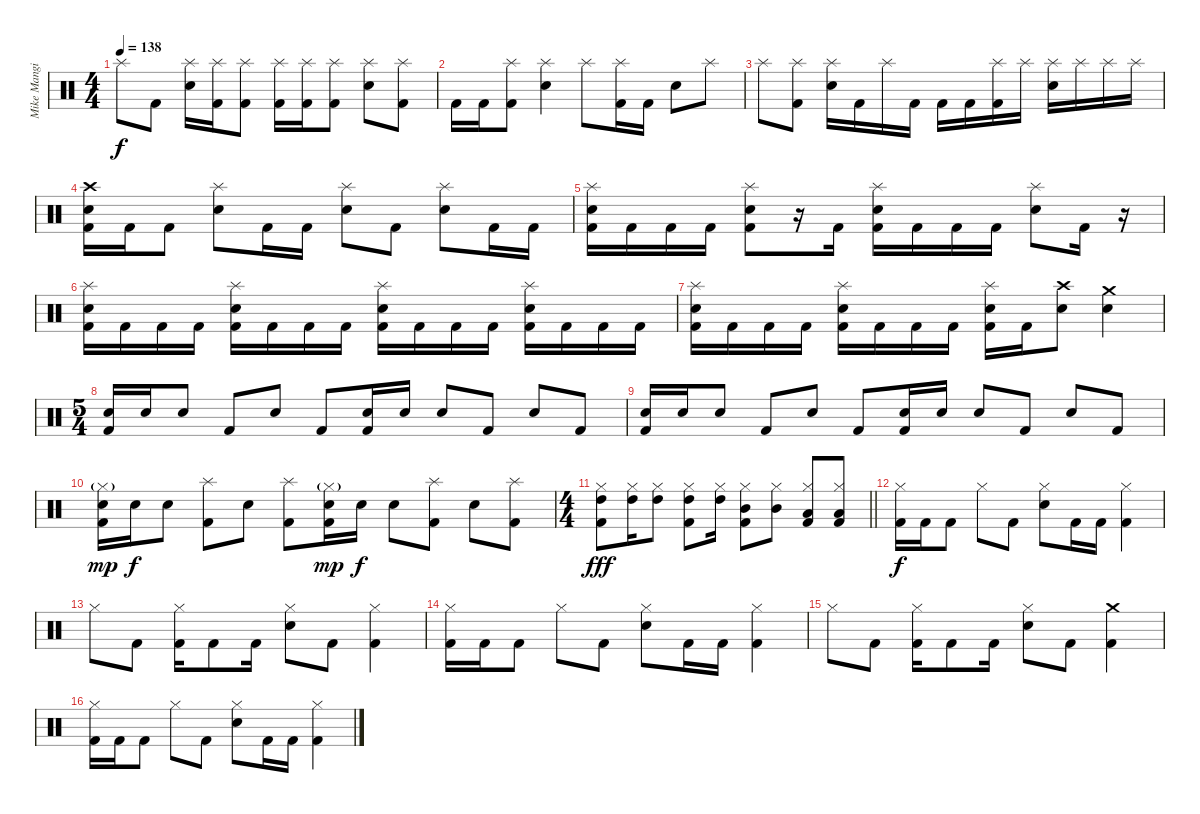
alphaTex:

\track ("Mike Mangini" "Mike Mangi") {instrument percussion}
\staff {score}
\articulation defaults
\ts (4 4)
\tempo 138
\clef neutral
\ks c "Splash (hit)".8{dy f} "Kick (hit) 2".8
("Splash (hit)" "Electric Snare (hit)").16 ("Splash (hit)" "Kick (hit) 2").16 ("Splash (hit)" "Kick (hit) 2").8 ("Splash (hit)" "Kick (hit) 2").16 ("Splash (hit)" "Kick (hit) 2").16 ("Splash (hit)" "Kick (hit) 2").8 ("Splash (hit)" "Electric Snare (hit)").8 ("Splash (hit)" "Kick (hit) 2").8 |
"Kick (hit) 2".16 "Kick (hit) 2".16 ("Splash (hit)" "Kick (hit) 2").8 ("Splash (hit)" "Electric Snare (hit)").4 "Splash (hit)".8 ("Splash (hit)" "Kick (hit) 2").16 "Kick (hit) 2".16 "Electric Snare (hit)".8 "Splash (hit)".8 |
"Splash (hit)".8 ("Splash (hit)" "Kick (hit) 2").8 ("Splash (hit)" "Electric Snare (hit)").16 "Kick (hit) 2".16 "Splash (hit)".16 "Kick (hit) 2".16 "Kick (hit) 2".16 "Kick (hit) 2".16 ("Splash (hit)" "Kick (hit) 2").16 "Splash (hit)".16 ("Splash (hit)" "Electric Snare (hit)").16 "Splash (hit)".16 "Splash (hit)".16 "Splash (hit)".16 |
("Crash high (hit)" "Electric Snare (hit)" "Kick (hit) 2").16 "Kick (hit) 2".16 "Kick (hit) 2".8 ("Splash (hit)" "Electric Snare (hit)").8 "Kick (hit) 2".16 "Kick (hit) 2".16 ("Splash (hit)" "Electric Snare (hit)").8 "Kick (hit) 2".8 ("Splash (hit)" "Electric Snare (hit)").8 "Kick (hit) 2".16 "Kick (hit) 2".16 |
("Splash (hit)" "Electric Snare (hit)" "Kick (hit) 2").16 "Kick (hit) 2".16 "Kick (hit) 2".16 "Kick (hit) 2".16 ("Splash (hit)" "Electric Snare (hit)" "Kick (hit) 2").8 r.16 "Kick (hit) 2".16 ("Splash (hit)" "Electric Snare (hit)" "Kick (hit) 2").16 "Kick (hit) 2".16 "Kick (hit) 2".16 "Kick (hit) 2".16 ("Splash (hit)" "Electric Snare (hit)").8 "Kick (hit) 2".16 r.16 |
("Splash (hit)" "Electric Snare (hit)" "Kick (hit) 2").16 "Kick (hit) 2".16 "Kick (hit) 2".16 "Kick (hit) 2".16 ("Splash (hit)" "Electric Snare (hit)" "Kick (hit) 2").16 "Kick (hit) 2".16 "Kick (hit) 2".16 "Kick (hit) 2".16 ("Splash (hit)" "Electric Snare (hit)" "Kick (hit) 2").16 "Kick (hit) 2".16 "Kick (hit) 2".16 "Kick (hit) 2".16 ("Splash (hit)" "Electric Snare (hit)" "Kick (hit) 2").16 "Kick (hit) 2".16 "Kick (hit) 2".16 "Kick (hit) 2".16 |
("Splash (hit)" "Electric Snare (hit)" "Kick (hit) 2").16 "Kick (hit) 2".16 "Kick (hit) 2".16 "Kick (hit) 2".16 ("Splash (hit)" "Electric Snare (hit)" "Kick (hit) 2").16 "Kick (hit) 2".16 "Kick (hit) 2".16 "Kick (hit) 2".16 ("Splash (hit)" "Electric Snare (hit)" "Kick (hit) 2").16 "Kick (hit) 2".16 ("Crash high (hit)" "Electric Snare (hit)").8 ("Crash medium (hit)" "Electric Snare (hit)").4 |
\ts (5 4)
("Electric Snare (hit)" "Kick (hit) 2").16 "Electric Snare (hit)".16 "Electric Snare (hit)".8 "Kick (hit) 2".8 "Electric Snare (hit)".8 "Kick (hit) 2".8 ("Electric Snare (hit)" "Kick (hit) 2").16 "Electric Snare (hit)".16 "Electric Snare (hit)".8 "Kick (hit) 2".8 "Electric Snare (hit)".8 "Kick (hit) 2".8 |
("Electric Snare (hit)" "Kick (hit) 2").16 "Electric Snare (hit)".16 "Electric Snare (hit)".8 "Kick (hit) 2".8 "Electric Snare (hit)".8 "Kick (hit) 2".8 ("Electric Snare (hit)" "Kick (hit) 2").16 "Electric Snare (hit)".16 "Electric Snare (hit)".8 "Kick (hit) 2".8 "Electric Snare (hit)".8 "Kick (hit) 2".8 |
("Hi-Hat (closed)"{g} "Electric Snare (hit)" "Kick (hit) 2").16{dy mp} "Electric Snare (hit)".16{dy f} "Electric Snare (hit)".8 ("Splash (hit)" "Kick (hit) 2").8 "Electric Snare (hit)".8 ("Splash (hit)" "Kick (hit) 2").8 ("Hi-Hat (closed)"{g} "Electric Snare (hit)" "Kick (hit) 2").16{dy mp} "Electric Snare (hit)".16{dy f} "Electric Snare (hit)".8 ("Splash (hit)" "Kick (hit) 2").8 "Electric Snare (hit)".8 ("Splash (hit)" "Kick (hit) 2").8 |
\ts (4 4)
\barLineRight lightlight
("Hi-Hat (closed)" "High Tom (hit)" "Kick (hit) 2").8{dy fff} ("Hi-Hat (closed)" "High Tom (hit)").16 ("Hi-Hat (closed)" "High Tom (hit)").8 ("Hi-Hat (closed)" "High Tom (hit)" "Kick (hit) 2").8 ("Hi-Hat (closed)" "High Tom (hit)").16 ("Hi-Hat (closed)" "Mid Tom (hit)" "Kick (hit) 2").8 ("Hi-Hat (closed)" "Mid Tom (hit)").8 ("Hi-Hat (closed)" "Low Tom (hit)" "Kick (hit) 2").8 ("Hi-Hat (closed)" "Low Tom (hit)" "Kick (hit) 2").8 |
("Hi-Hat (closed)" "Kick (hit) 2").16{dy f} "Kick (hit) 2".16 "Kick (hit) 2".8 "Hi-Hat (closed)".8 "Kick (hit) 2".8 ("Hi-Hat (closed)" "Electric Snare (hit)").8 "Kick (hit) 2".16 "Kick (hit) 2".16 ("Hi-Hat (closed)" "Kick (hit) 2").4 |
"Hi-Hat (closed)".8 "Kick (hit) 2".8 ("Hi-Hat (closed)" "Kick (hit) 2").16 "Kick (hit) 2".8 "Kick (hit) 2".16 ("Hi-Hat (closed)" "Electric Snare (hit)").8 "Kick (hit) 2".8 ("Hi-Hat (closed)" "Kick (hit) 2").4 |
("Hi-Hat (closed)" "Kick (hit) 2").16 "Kick (hit) 2".16 "Kick (hit) 2".8 "Hi-Hat (closed)".8 "Kick (hit) 2".8 ("Hi-Hat (closed)" "Electric Snare (hit)").8 "Kick (hit) 2".16 "Kick (hit) 2".16 ("Hi-Hat (closed)" "Kick (hit) 2").4 |
"Hi-Hat (closed)".8 "Kick (hit) 2".8 ("Hi-Hat (closed)" "Kick (hit) 2").16 "Kick (hit) 2".8 "Kick (hit) 2".16 ("Hi-Hat (closed)" "Electric Snare (hit)").8 "Kick (hit) 2".8 ("Crash medium (hit)" "Kick (hit) 2").4 |
("Hi-Hat (closed)" "Kick (hit) 2").16 "Kick (hit) 2".16 "Kick (hit) 2".8 "Hi-Hat (closed)".8 "Kick (hit) 2".8 ("Hi-Hat (closed)" "Electric Snare (hit)").8 "Kick (hit) 2".16 "Kick (hit) 2".16 ("Hi-Hat (closed)" "Kick (hit) 2").4
